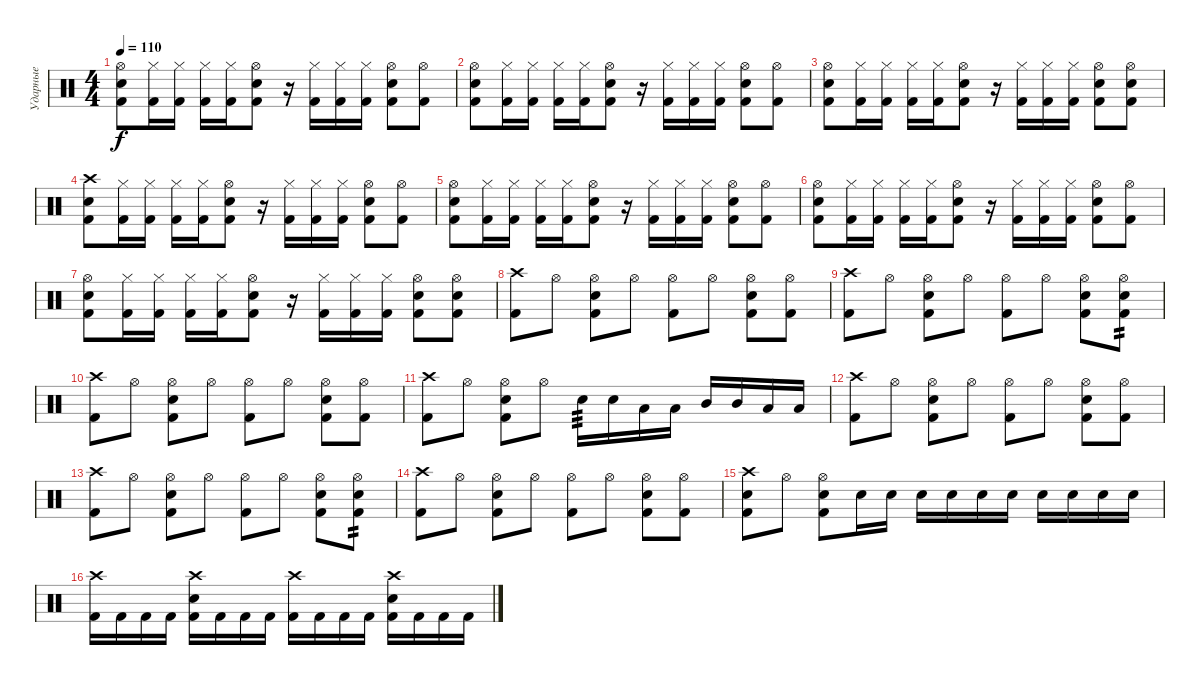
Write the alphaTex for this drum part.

\track ("Ударные" "Ударные") {instrument percussion}
\staff {score}
\articulation defaults
\ts (4 4)
\tempo 110
\clef neutral
\ks c
("Hi-Hat (open)" "Snare (hit) 2" "Kick (hit) 2").8{dy f} ("Hi-Hat (closed)" "Kick (hit) 2").16 ("Hi-Hat (closed)" "Kick (hit) 2").16 ("Hi-Hat (closed)" "Kick (hit) 2").16 ("Hi-Hat (closed)" "Kick (hit) 2").16 ("Hi-Hat (open)" "Snare (hit) 2" "Kick (hit) 2").8 r.16 ("Hi-Hat (closed)" "Kick (hit) 2").16 ("Hi-Hat (closed)" "Kick (hit) 2").16 ("Hi-Hat (closed)" "Kick (hit) 2").16 ("Hi-Hat (open)" "Snare (hit) 2" "Kick (hit) 2").8 ("Hi-Hat (open)" "Kick (hit) 2").8 |
("Hi-Hat (open)" "Snare (hit) 2" "Kick (hit) 2").8 ("Hi-Hat (closed)" "Kick (hit) 2").16 ("Hi-Hat (closed)" "Kick (hit) 2").16 ("Hi-Hat (closed)" "Kick (hit) 2").16 ("Hi-Hat (closed)" "Kick (hit) 2").16 ("Hi-Hat (open)" "Snare (hit) 2" "Kick (hit) 2").8 r.16 ("Hi-Hat (closed)" "Kick (hit) 2").16 ("Hi-Hat (closed)" "Kick (hit) 2").16 ("Hi-Hat (closed)" "Kick (hit) 2").16 ("Hi-Hat (open)" "Snare (hit) 2" "Kick (hit) 2").8 ("Hi-Hat (open)" "Kick (hit) 2").8 |
("Hi-Hat (open)" "Snare (hit) 2" "Kick (hit) 2").8 ("Hi-Hat (closed)" "Kick (hit) 2").16 ("Hi-Hat (closed)" "Kick (hit) 2").16 ("Hi-Hat (closed)" "Kick (hit) 2").16 ("Hi-Hat (closed)" "Kick (hit) 2").16 ("Hi-Hat (open)" "Snare (hit) 2" "Kick (hit) 2").8 r.16 ("Hi-Hat (closed)" "Kick (hit) 2").16 ("Hi-Hat (closed)" "Kick (hit) 2").16 ("Hi-Hat (closed)" "Kick (hit) 2").16 ("Hi-Hat (open)" "Snare (hit) 2" "Kick (hit) 2").8 ("Hi-Hat (open)" "Snare (hit) 2" "Kick (hit) 2").8 |
("Crash high (hit)" "Snare (hit) 2" "Kick (hit) 2").8 ("Hi-Hat (closed)" "Kick (hit) 2").16 ("Hi-Hat (closed)" "Kick (hit) 2").16 ("Hi-Hat (closed)" "Kick (hit) 2").16 ("Hi-Hat (closed)" "Kick (hit) 2").16 ("Hi-Hat (open)" "Snare (hit) 2" "Kick (hit) 2").8 r.16 ("Hi-Hat (closed)" "Kick (hit) 2").16 ("Hi-Hat (closed)" "Kick (hit) 2").16 ("Hi-Hat (closed)" "Kick (hit) 2").16 ("Hi-Hat (open)" "Snare (hit) 2" "Kick (hit) 2").8 ("Hi-Hat (open)" "Kick (hit) 2").8 |
("Hi-Hat (open)" "Snare (hit) 2" "Kick (hit) 2").8 ("Hi-Hat (closed)" "Kick (hit) 2").16 ("Hi-Hat (closed)" "Kick (hit) 2").16 ("Hi-Hat (closed)" "Kick (hit) 2").16 ("Hi-Hat (closed)" "Kick (hit) 2").16 ("Hi-Hat (open)" "Snare (hit) 2" "Kick (hit) 2").8 r.16 ("Hi-Hat (closed)" "Kick (hit) 2").16 ("Hi-Hat (closed)" "Kick (hit) 2").16 ("Hi-Hat (closed)" "Kick (hit) 2").16 ("Hi-Hat (open)" "Snare (hit) 2" "Kick (hit) 2").8 ("Hi-Hat (open)" "Kick (hit) 2").8 |
("Hi-Hat (open)" "Snare (hit) 2" "Kick (hit) 2").8 ("Hi-Hat (closed)" "Kick (hit) 2").16 ("Hi-Hat (closed)" "Kick (hit) 2").16 ("Hi-Hat (closed)" "Kick (hit) 2").16 ("Hi-Hat (closed)" "Kick (hit) 2").16 ("Hi-Hat (open)" "Snare (hit) 2" "Kick (hit) 2").8 r.16 ("Hi-Hat (closed)" "Kick (hit) 2").16 ("Hi-Hat (closed)" "Kick (hit) 2").16 ("Hi-Hat (closed)" "Kick (hit) 2").16 ("Hi-Hat (open)" "Snare (hit) 2" "Kick (hit) 2").8 ("Hi-Hat (open)" "Kick (hit) 2").8 |
("Hi-Hat (open)" "Snare (hit) 2" "Kick (hit) 2").8 ("Hi-Hat (closed)" "Kick (hit) 2").16 ("Hi-Hat (closed)" "Kick (hit) 2").16 ("Hi-Hat (closed)" "Kick (hit) 2").16 ("Hi-Hat (closed)" "Kick (hit) 2").16 ("Hi-Hat (open)" "Snare (hit) 2" "Kick (hit) 2").8 r.16 ("Hi-Hat (closed)" "Kick (hit) 2").16 ("Hi-Hat (closed)" "Kick (hit) 2").16 ("Hi-Hat (closed)" "Kick (hit) 2").16 ("Hi-Hat (open)" "Snare (hit) 2" "Kick (hit) 2").8 ("Hi-Hat (open)" "Snare (hit) 2" "Kick (hit) 2").8 |
("Crash high (hit)" "Kick (hit) 2").8 "Hi-Hat (open)".8 ("Hi-Hat (open)" "Snare (hit) 2" "Kick (hit) 2").8 "Hi-Hat (open)".8 ("Hi-Hat (open)" "Kick (hit) 2").8 "Hi-Hat (open)".8 ("Hi-Hat (open)" "Snare (hit) 2" "Kick (hit) 2").8 ("Hi-Hat (open)" "Kick (hit) 2").8 |
("Crash high (hit)" "Kick (hit) 2").8 "Hi-Hat (open)".8 ("Hi-Hat (open)" "Snare (hit) 2" "Kick (hit) 2").8 "Hi-Hat (open)".8 ("Hi-Hat (open)" "Kick (hit) 2").8 "Hi-Hat (open)".8 ("Hi-Hat (open)" "Snare (hit) 2" "Kick (hit) 2").8 ("Hi-Hat (open)" "Snare (hit) 2" "Kick (hit) 2").8{tp 2} |
("Crash high (hit)" "Kick (hit) 2").8 "Hi-Hat (open)".8 ("Hi-Hat (open)" "Snare (hit) 2" "Kick (hit) 2").8 "Hi-Hat (open)".8 ("Hi-Hat (open)" "Kick (hit) 2").8 "Hi-Hat (open)".8 ("Hi-Hat (open)" "Snare (hit) 2" "Kick (hit) 2").8 ("Hi-Hat (open)" "Kick (hit) 2").8 |
("Crash high (hit)" "Kick (hit) 2").8 "Hi-Hat (open)".8 ("Hi-Hat (open)" "Snare (hit) 2" "Kick (hit) 2").8 "Hi-Hat (open)".8 "Snare (hit) 2".16{tp 3} "Snare (hit) 2".16 "Low Tom (hit)".16 "Low Tom (hit)".16 "Mid Tom (hit)".16 "Mid Tom (hit)".16 "Low Floor Tom (hit)".16 "Low Floor Tom (hit)".16 |
("Crash high (hit)" "Kick (hit) 2").8 "Hi-Hat (open)".8 ("Hi-Hat (open)" "Snare (hit) 2" "Kick (hit) 2").8 "Hi-Hat (open)".8 ("Hi-Hat (open)" "Kick (hit) 2").8 "Hi-Hat (open)".8 ("Hi-Hat (open)" "Snare (hit) 2" "Kick (hit) 2").8 ("Hi-Hat (open)" "Kick (hit) 2").8 |
("Crash high (hit)" "Kick (hit) 2").8 "Hi-Hat (open)".8 ("Hi-Hat (open)" "Snare (hit) 2" "Kick (hit) 2").8 "Hi-Hat (open)".8 ("Hi-Hat (open)" "Kick (hit) 2").8 "Hi-Hat (open)".8 ("Hi-Hat (open)" "Snare (hit) 2" "Kick (hit) 2").8 ("Hi-Hat (open)" "Snare (hit) 2" "Kick (hit) 2").8{tp 2} |
("Crash high (hit)" "Kick (hit) 2").8 "Hi-Hat (open)".8 ("Hi-Hat (open)" "Snare (hit) 2" "Kick (hit) 2").8 "Hi-Hat (open)".8 ("Hi-Hat (open)" "Kick (hit) 2").8 "Hi-Hat (open)".8 ("Hi-Hat (open)" "Snare (hit) 2" "Kick (hit) 2").8 ("Hi-Hat (open)" "Kick (hit) 2").8 |
("Crash high (hit)" "Snare (hit) 2" "Kick (hit) 2").8 "Hi-Hat (open)".8 ("Hi-Hat (open)" "Snare (hit) 2" "Kick (hit) 2").8 "Snare (hit) 2".16 "Snare (hit) 2".16 "Snare (hit) 2".16 "Snare (hit) 2".16 "Snare (hit) 2".16 "Snare (hit) 2".16 "Snare (hit) 2".16 "Snare (hit) 2".16 "Snare (hit) 2".16 "Snare (hit) 2".16 |
("Crash high (hit)" "Kick (hit) 2").16 "Kick (hit) 2".16 "Kick (hit) 2".16 "Kick (hit) 2".16 ("Crash high (hit)" "Snare (hit) 2" "Kick (hit) 2").16 "Kick (hit) 2".16 "Kick (hit) 2".16 "Kick (hit) 2".16 ("Crash high (hit)" "Kick (hit) 2").16 "Kick (hit) 2".16 "Kick (hit) 2".16 "Kick (hit) 2".16 ("Crash high (hit)" "Snare (hit) 2" "Kick (hit) 2").16 "Kick (hit) 2".16 "Kick (hit) 2".16 "Kick (hit) 2".16
